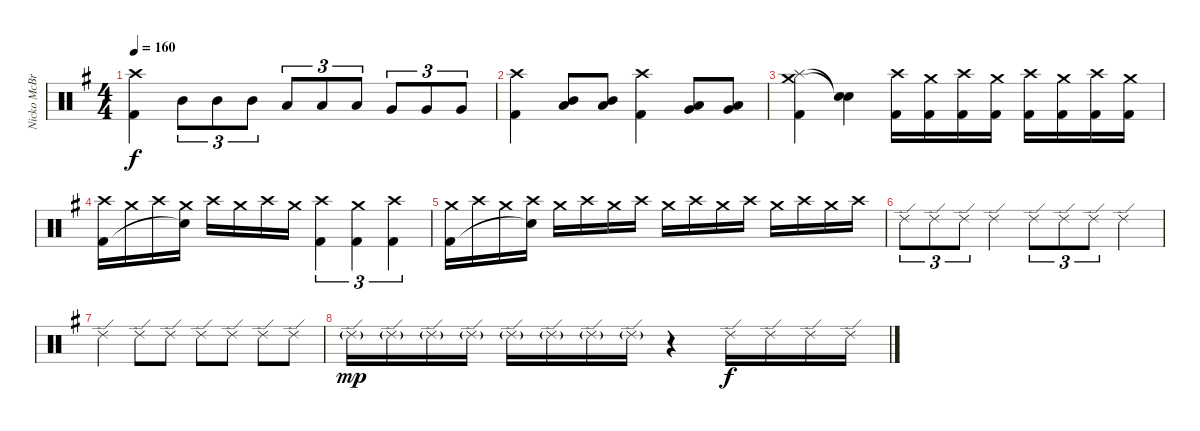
\track ("Nicko McBrain" "Nicko McBr") {instrument percussion}
\staff {score}
\articulation defaults
\ts (4 4)
\tempo 160
\clef neutral
\ks g
("Crash high (hit)" "Kick (hit) 2").4{dy f} "Mid Tom (hit)".8{tu (3 2)} "Mid Tom (hit)".8{tu (3 2)} "Mid Tom (hit)".8{tu (3 2)} "Low Tom (hit)".8{tu (3 2)} "Low Tom (hit)".8{tu (3 2)} "Low Tom (hit)".8{tu (3 2)} "Very Low Tom (hit)".8{tu (3 2)} "Very Low Tom (hit)".8{tu (3 2)} "Very Low Tom (hit)".8{tu (3 2)} |
("Crash high (hit)" "Kick (hit) 2").4 ("Mid Tom (hit)" "Low Tom (hit)").8 ("Mid Tom (hit)" "Low Tom (hit)").8 ("Crash high (hit)" "Kick (hit) 2").4 ("Low Tom (hit)" "Very Low Tom (hit)").8 ("Low Tom (hit)" "Very Low Tom (hit)").8 |
("Crash medium (hit)" "Splash (hit)" "Kick (hit) 2").4 ("Snare (hit)"{t} "Snare (hit)"{t}).4 ("Crash high (hit)" "Kick (hit) 2").16 ("Crash medium (hit)" "Kick (hit) 2").16 ("Crash high (hit)" "Kick (hit) 2").16 ("Crash medium (hit)" "Kick (hit) 2").16 ("Crash high (hit)" "Kick (hit) 2").16 ("Crash medium (hit)" "Kick (hit) 2").16 ("Crash high (hit)" "Kick (hit) 2").16 ("Crash medium (hit)" "Kick (hit) 2").16 |
("Crash high (hit)" "Kick (hit) 2").16 "Crash medium (hit)".16 "Crash high (hit)".16 ("Crash medium (hit)" "Snare (hit)"{t}).16 "Crash high (hit)".16 "Crash medium (hit)".16 "Crash high (hit)".16 "Crash medium (hit)".16 ("Crash high (hit)" "Kick (hit) 2").4{tu (3 2)} ("Crash medium (hit)" "Kick (hit) 2").4{tu (3 2)} ("Crash high (hit)" "Kick (hit) 2").4{tu (3 2)} |
("Crash medium (hit)" "Kick (hit) 2").16 "Crash high (hit)".16 "Crash medium (hit)".16 ("Crash high (hit)" "Snare (hit)"{t}).16 "Crash medium (hit)".16 "Crash high (hit)".16 "Crash medium (hit)".16 "Crash high (hit)".16 "Crash medium (hit)".16 "Crash high (hit)".16 "Crash medium (hit)".16 "Crash high (hit)".16 "Crash medium (hit)".16 "Crash high (hit)".16 "Crash medium (hit)".16 "Crash high (hit)".16 |
"Ride (edge) 2".8{tu (3 2)} "Ride (edge) 2".8{tu (3 2)} "Ride (edge) 2".8{tu (3 2)} "Ride (edge) 2".4 "Ride (edge) 2".8{tu (3 2)} "Ride (edge) 2".8{tu (3 2)} "Ride (edge) 2".8{tu (3 2)} "Ride (edge) 2".4 |
"Ride (edge) 2".4 "Ride (edge) 2".8 "Ride (edge) 2".8 "Ride (edge) 2".8 "Ride (edge) 2".8 "Ride (edge) 2".8 "Ride (edge) 2".8 |
"Ride (edge) 2"{g}.16{dy mp} "Ride (edge) 2"{g}.16 "Ride (edge) 2"{g}.16 "Ride (edge) 2"{g}.16 "Ride (edge) 2"{g}.16 "Ride (edge) 2"{g}.16 "Ride (edge) 2"{g}.16 "Ride (edge) 2"{g}.16 r.4 "Ride (edge) 2".16{dy f} "Ride (edge) 2".16 "Ride (edge) 2".16 "Ride (edge) 2".16
